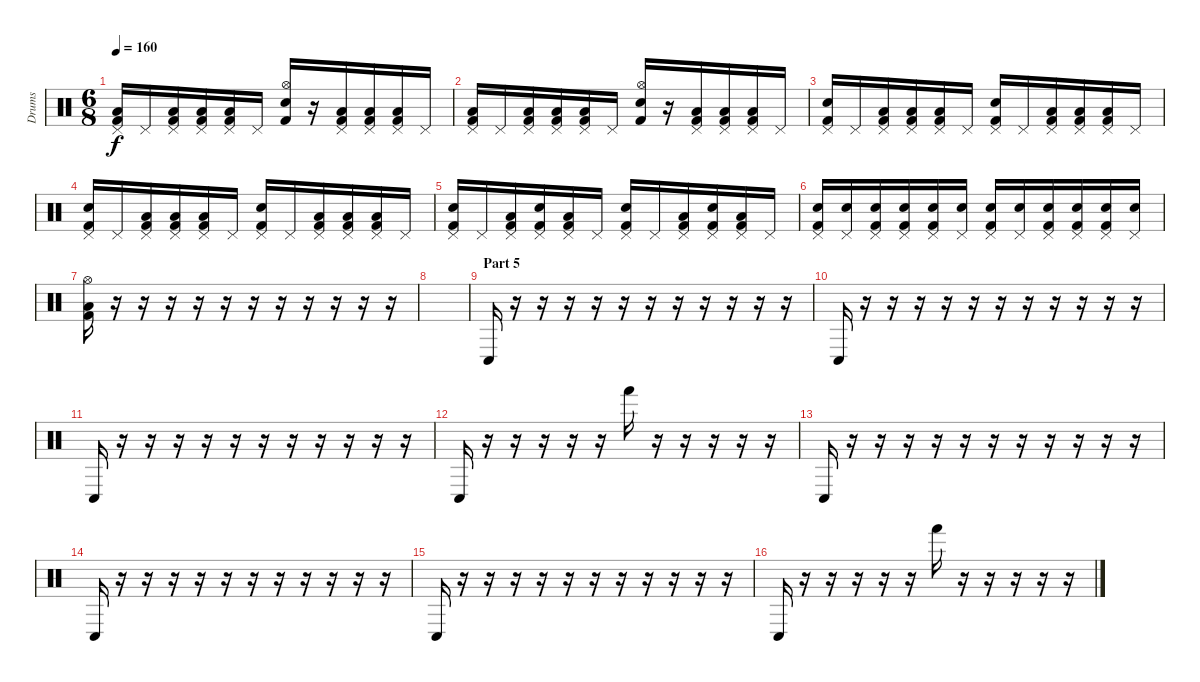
\track ("Drums" "Drums") {instrument percussion}
\staff {score}
\articulation defaults
\ts (6 8)
\tempo 160
\clef neutral
\ks c
("Pedal Hi-Hat (hit)" "Low Floor Tom (hit)" "Kick (hit) 2").16{dy f} "Pedal Hi-Hat (hit)".16 ("Pedal Hi-Hat (hit)" "Low Floor Tom (hit)" "Kick (hit) 2").16 ("Pedal Hi-Hat (hit)" "Low Floor Tom (hit)" "Kick (hit) 2").16 ("Pedal Hi-Hat (hit)" "Low Floor Tom (hit)" "Kick (hit) 2").16 "Pedal Hi-Hat (hit)".16 ("Hi-Hat (open)" "Snare (hit) 2" "Kick (hit) 2").16 r.16 ("Pedal Hi-Hat (hit)" "Low Floor Tom (hit)" "Kick (hit) 2").16 ("Pedal Hi-Hat (hit)" "Low Floor Tom (hit)" "Kick (hit) 2").16 ("Pedal Hi-Hat (hit)" "Low Floor Tom (hit)" "Kick (hit) 2").16 "Pedal Hi-Hat (hit)".16 |
("Pedal Hi-Hat (hit)" "Low Floor Tom (hit)" "Kick (hit) 2").16 "Pedal Hi-Hat (hit)".16 ("Pedal Hi-Hat (hit)" "Low Floor Tom (hit)" "Kick (hit) 2").16 ("Pedal Hi-Hat (hit)" "Low Floor Tom (hit)" "Kick (hit) 2").16 ("Pedal Hi-Hat (hit)" "Low Floor Tom (hit)" "Kick (hit) 2").16 "Pedal Hi-Hat (hit)".16 ("Hi-Hat (open)" "Snare (hit) 2" "Kick (hit) 2").16 r.16 ("Pedal Hi-Hat (hit)" "Low Floor Tom (hit)" "Kick (hit) 2").16 ("Pedal Hi-Hat (hit)" "Low Floor Tom (hit)" "Kick (hit) 2").16 ("Pedal Hi-Hat (hit)" "Low Floor Tom (hit)" "Kick (hit) 2").16 "Pedal Hi-Hat (hit)".16 |
("Pedal Hi-Hat (hit)" "Snare (hit) 2" "Kick (hit) 2").16 "Pedal Hi-Hat (hit)".16 ("Pedal Hi-Hat (hit)" "Low Floor Tom (hit)" "Kick (hit) 2").16 ("Pedal Hi-Hat (hit)" "Low Floor Tom (hit)" "Kick (hit) 2").16 ("Pedal Hi-Hat (hit)" "Low Floor Tom (hit)" "Kick (hit) 2").16 "Pedal Hi-Hat (hit)".16 ("Pedal Hi-Hat (hit)" "Snare (hit) 2" "Kick (hit) 2").16 "Pedal Hi-Hat (hit)".16 ("Pedal Hi-Hat (hit)" "Low Floor Tom (hit)" "Kick (hit) 2").16 ("Pedal Hi-Hat (hit)" "Low Floor Tom (hit)" "Kick (hit) 2").16 ("Pedal Hi-Hat (hit)" "Low Floor Tom (hit)" "Kick (hit) 2").16 "Pedal Hi-Hat (hit)".16 |
("Pedal Hi-Hat (hit)" "Snare (hit) 2" "Kick (hit) 2").16 "Pedal Hi-Hat (hit)".16 ("Pedal Hi-Hat (hit)" "Low Floor Tom (hit)" "Kick (hit) 2").16 ("Pedal Hi-Hat (hit)" "Low Floor Tom (hit)" "Kick (hit) 2").16 ("Pedal Hi-Hat (hit)" "Low Floor Tom (hit)" "Kick (hit) 2").16 "Pedal Hi-Hat (hit)".16 ("Pedal Hi-Hat (hit)" "Snare (hit) 2" "Kick (hit) 2").16 "Pedal Hi-Hat (hit)".16 ("Pedal Hi-Hat (hit)" "Low Floor Tom (hit)" "Kick (hit) 2").16 ("Pedal Hi-Hat (hit)" "Low Floor Tom (hit)" "Kick (hit) 2").16 ("Pedal Hi-Hat (hit)" "Low Floor Tom (hit)" "Kick (hit) 2").16 "Pedal Hi-Hat (hit)".16 |
("Pedal Hi-Hat (hit)" "Snare (hit) 2" "Kick (hit) 2").16 "Pedal Hi-Hat (hit)".16 ("Pedal Hi-Hat (hit)" "Low Floor Tom (hit)" "Kick (hit) 2").16 ("Pedal Hi-Hat (hit)" "Snare (hit) 2" "Kick (hit) 2").16 ("Pedal Hi-Hat (hit)" "Low Floor Tom (hit)" "Kick (hit) 2").16 "Pedal Hi-Hat (hit)".16 ("Pedal Hi-Hat (hit)" "Snare (hit) 2" "Kick (hit) 2").16 "Pedal Hi-Hat (hit)".16 ("Pedal Hi-Hat (hit)" "Low Floor Tom (hit)" "Kick (hit) 2").16 ("Pedal Hi-Hat (hit)" "Snare (hit) 2" "Kick (hit) 2").16 ("Pedal Hi-Hat (hit)" "Low Floor Tom (hit)" "Kick (hit) 2").16 "Pedal Hi-Hat (hit)".16 |
("Pedal Hi-Hat (hit)" "Snare (hit) 2" "Kick (hit) 2").16 ("Pedal Hi-Hat (hit)" "Snare (hit) 2").16 ("Pedal Hi-Hat (hit)" "Snare (hit) 2" "Kick (hit) 2").16 ("Pedal Hi-Hat (hit)" "Snare (hit) 2" "Kick (hit) 2").16 ("Pedal Hi-Hat (hit)" "Snare (hit) 2" "Kick (hit) 2").16 ("Pedal Hi-Hat (hit)" "Snare (hit) 2").16 ("Pedal Hi-Hat (hit)" "Snare (hit) 2" "Kick (hit) 2").16 ("Pedal Hi-Hat (hit)" "Snare (hit) 2").16 ("Pedal Hi-Hat (hit)" "Snare (hit) 2" "Kick (hit) 2").16 ("Pedal Hi-Hat (hit)" "Snare (hit) 2" "Kick (hit) 2").16 ("Pedal Hi-Hat (hit)" "Snare (hit) 2" "Kick (hit) 2").16 ("Pedal Hi-Hat (hit)" "Snare (hit) 2").16 |
("Hi-Hat (open)" "Low Floor Tom (hit)" "Kick (hit) 2").16 r.16 r.16 r.16 r.16 r.16 r.16 r.16 r.16 r.16 r.16 r.16 |
|
\section ("" "Part 5")
"Conga low (hit)".16 r.16 r.16 r.16 r.16 r.16 r.16 r.16 r.16 r.16 r.16 r.16 |
"Conga low (hit)".16 r.16 r.16 r.16 r.16 r.16 r.16 r.16 r.16 r.16 r.16 r.16 |
"Conga low (hit)".16 r.16 r.16 r.16 r.16 r.16 r.16 r.16 r.16 r.16 r.16 r.16 |
"Conga low (hit)".16 r.16 r.16 r.16 r.16 r.16 "Hand (hit)".16 r.16 r.16 r.16 r.16 r.16 |
"Conga low (hit)".16 r.16 r.16 r.16 r.16 r.16 r.16 r.16 r.16 r.16 r.16 r.16 |
"Conga low (hit)".16 r.16 r.16 r.16 r.16 r.16 r.16 r.16 r.16 r.16 r.16 r.16 |
"Conga low (hit)".16 r.16 r.16 r.16 r.16 r.16 r.16 r.16 r.16 r.16 r.16 r.16 |
"Conga low (hit)".16 r.16 r.16 r.16 r.16 r.16 "Hand (hit)".16 r.16 r.16 r.16 r.16 r.16
